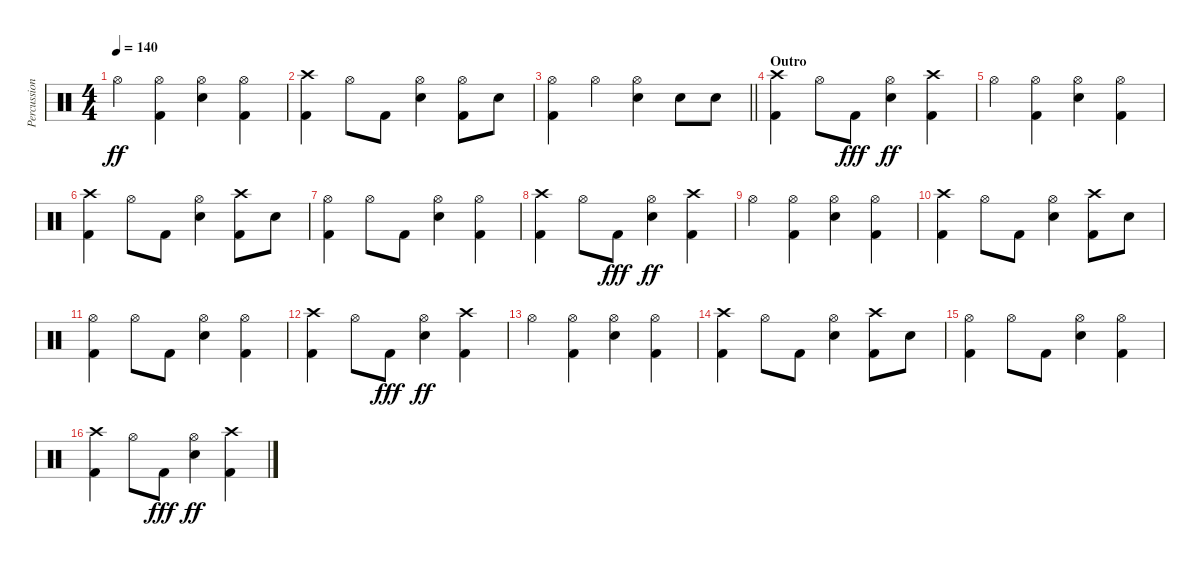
\track ("Percussion" "Percussion") {instrument percussion}
\staff {score}
\articulation defaults
\ts (4 4)
\tempo 140
\clef neutral
\ks c "Hi-Hat (open)".4{dy ff}
("Hi-Hat (open)" "Kick (hit) 2").4 ("Hi-Hat (open)" "Snare (hit) 2").4 ("Hi-Hat (open)" "Kick (hit) 2").4 |
("Crash high (hit)" "Kick (hit) 2").4 "Hi-Hat (open)".8 "Kick (hit) 2".8 ("Hi-Hat (open)" "Snare (hit) 2").4 ("Hi-Hat (open)" "Kick (hit) 2").8 "Snare (hit) 2".8 |
\barLineRight lightlight
("Hi-Hat (open)" "Kick (hit) 2").4 "Hi-Hat (open)".4 ("Hi-Hat (open)" "Snare (hit) 2").4 "Snare (hit) 2".8 "Snare (hit) 2".8 |
\section ("" "Outro")
("Crash high (hit)" "Kick (hit) 2").4 "Hi-Hat (open)".8 "Kick (hit) 2".8{dy fff} ("Hi-Hat (open)" "Snare (hit) 2").4{dy ff} ("Crash high (hit)" "Kick (hit) 2").4 |
"Hi-Hat (open)".4 ("Hi-Hat (open)" "Kick (hit) 2").4 ("Hi-Hat (open)" "Snare (hit) 2").4 ("Hi-Hat (open)" "Kick (hit) 2").4 |
("Crash high (hit)" "Kick (hit) 2").4 "Hi-Hat (open)".8 "Kick (hit) 2".8 ("Hi-Hat (open)" "Snare (hit) 2").4 ("Crash high (hit)" "Kick (hit) 2").8 "Snare (hit) 2".8 |
("Hi-Hat (open)" "Kick (hit) 2").4 "Hi-Hat (open)".8 "Kick (hit) 2".8 ("Hi-Hat (open)" "Snare (hit) 2").4 ("Hi-Hat (open)" "Kick (hit) 2").4 |
("Crash high (hit)" "Kick (hit) 2").4 "Hi-Hat (open)".8 "Kick (hit) 2".8{dy fff} ("Hi-Hat (open)" "Snare (hit) 2").4{dy ff} ("Crash high (hit)" "Kick (hit) 2").4 |
"Hi-Hat (open)".4 ("Hi-Hat (open)" "Kick (hit) 2").4 ("Hi-Hat (open)" "Snare (hit) 2").4 ("Hi-Hat (open)" "Kick (hit) 2").4 |
("Crash high (hit)" "Kick (hit) 2").4 "Hi-Hat (open)".8 "Kick (hit) 2".8 ("Hi-Hat (open)" "Snare (hit) 2").4 ("Crash high (hit)" "Kick (hit) 2").8 "Snare (hit) 2".8 |
("Hi-Hat (open)" "Kick (hit) 2").4 "Hi-Hat (open)".8 "Kick (hit) 2".8 ("Hi-Hat (open)" "Snare (hit) 2").4 ("Hi-Hat (open)" "Kick (hit) 2").4 |
("Crash high (hit)" "Kick (hit) 2").4 "Hi-Hat (open)".8 "Kick (hit) 2".8{dy fff} ("Hi-Hat (open)" "Snare (hit) 2").4{dy ff} ("Crash high (hit)" "Kick (hit) 2").4 |
"Hi-Hat (open)".4 ("Hi-Hat (open)" "Kick (hit) 2").4 ("Hi-Hat (open)" "Snare (hit) 2").4 ("Hi-Hat (open)" "Kick (hit) 2").4 |
("Crash high (hit)" "Kick (hit) 2").4 "Hi-Hat (open)".8 "Kick (hit) 2".8 ("Hi-Hat (open)" "Snare (hit) 2").4 ("Crash high (hit)" "Kick (hit) 2").8 "Snare (hit) 2".8 |
("Hi-Hat (open)" "Kick (hit) 2").4 "Hi-Hat (open)".8 "Kick (hit) 2".8 ("Hi-Hat (open)" "Snare (hit) 2").4 ("Hi-Hat (open)" "Kick (hit) 2").4 |
("Crash high (hit)" "Kick (hit) 2").4 "Hi-Hat (open)".8 "Kick (hit) 2".8{dy fff} ("Hi-Hat (open)" "Snare (hit) 2").4{dy ff} ("Crash high (hit)" "Kick (hit) 2").4
